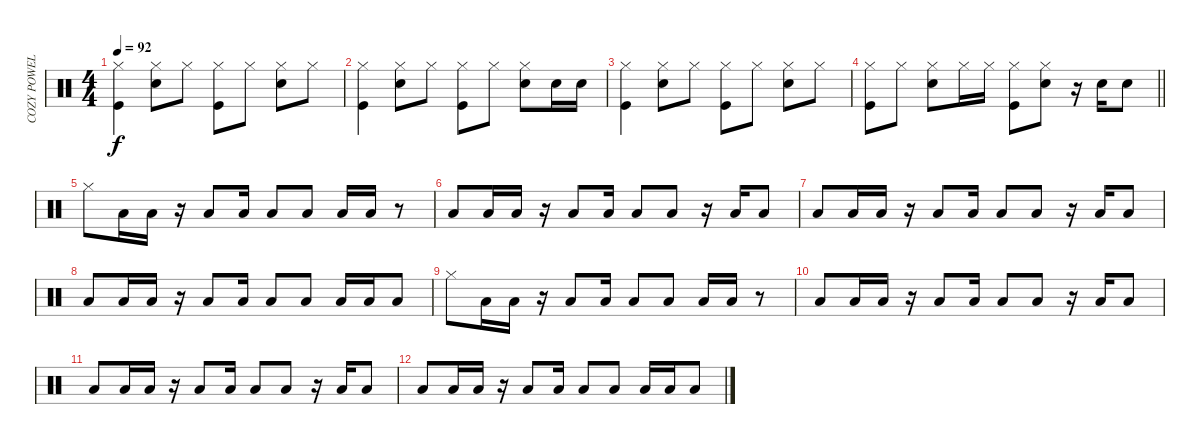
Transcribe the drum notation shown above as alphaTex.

\track ("COZY POWELL" "COZY POWEL") {instrument percussion}
\staff {score}
\articulation defaults
\ts (4 4)
\tempo 92
\clef neutral
\ks c
("Hi-Hat (closed)" "Kick (hit)").4{dy f} ("Hi-Hat (closed)" "Snare (hit) 2").8 "Hi-Hat (closed)".8 ("Hi-Hat (closed)" "Kick (hit)").8 "Hi-Hat (closed)".8 ("Hi-Hat (closed)" "Snare (hit) 2").8 "Hi-Hat (closed)".8 |
("Hi-Hat (closed)" "Kick (hit)").4 ("Hi-Hat (closed)" "Snare (hit) 2").8 "Hi-Hat (closed)".8 ("Hi-Hat (closed)" "Kick (hit)").8 "Hi-Hat (closed)".8 ("Hi-Hat (closed)" "Snare (hit) 2").8 "Snare (hit) 2".16 "Snare (hit) 2".16 |
("Hi-Hat (closed)" "Kick (hit)").4 ("Hi-Hat (closed)" "Snare (hit) 2").8 "Hi-Hat (closed)".8 ("Hi-Hat (closed)" "Kick (hit)").8 "Hi-Hat (closed)".8 ("Hi-Hat (closed)" "Snare (hit) 2").8 "Hi-Hat (closed)".8 |
\barLineRight lightlight
("Hi-Hat (closed)" "Kick (hit)").8 "Hi-Hat (closed)".8 ("Hi-Hat (closed)" "Snare (hit) 2").8 "Hi-Hat (closed)".16 "Hi-Hat (closed)".16 ("Hi-Hat (closed)" "Kick (hit)").8 ("Hi-Hat (closed)" "Snare (hit) 2").8 r.16 "Snare (hit) 2".16 "Snare (hit) 2".8 |
"Hi-Hat (closed)".8 "Low Tom (hit)".16 "Low Tom (hit)".16 r.16 "Low Tom (hit)".8 "Low Tom (hit)".16 "Low Tom (hit)".8 "Low Tom (hit)".8 "Low Tom (hit)".16 "Low Tom (hit)".16 r.8 |
"Low Tom (hit)".8 "Low Tom (hit)".16 "Low Tom (hit)".16 r.16 "Low Tom (hit)".8 "Low Tom (hit)".16 "Low Tom (hit)".8 "Low Tom (hit)".8 r.16 "Low Tom (hit)".16 "Low Tom (hit)".8 |
"Low Tom (hit)".8 "Low Tom (hit)".16 "Low Tom (hit)".16 r.16 "Low Tom (hit)".8 "Low Tom (hit)".16 "Low Tom (hit)".8 "Low Tom (hit)".8 r.16 "Low Tom (hit)".16 "Low Tom (hit)".8 |
"Low Tom (hit)".8 "Low Tom (hit)".16 "Low Tom (hit)".16 r.16 "Low Tom (hit)".8 "Low Tom (hit)".16 "Low Tom (hit)".8 "Low Tom (hit)".8 "Low Tom (hit)".16 "Low Tom (hit)".16 "Low Tom (hit)".8 |
"Hi-Hat (closed)".8 "Low Tom (hit)".16 "Low Tom (hit)".16 r.16 "Low Tom (hit)".8 "Low Tom (hit)".16 "Low Tom (hit)".8 "Low Tom (hit)".8 "Low Tom (hit)".16 "Low Tom (hit)".16 r.8 |
"Low Tom (hit)".8 "Low Tom (hit)".16 "Low Tom (hit)".16 r.16 "Low Tom (hit)".8 "Low Tom (hit)".16 "Low Tom (hit)".8 "Low Tom (hit)".8 r.16 "Low Tom (hit)".16 "Low Tom (hit)".8 |
"Low Tom (hit)".8 "Low Tom (hit)".16 "Low Tom (hit)".16 r.16 "Low Tom (hit)".8 "Low Tom (hit)".16 "Low Tom (hit)".8 "Low Tom (hit)".8 r.16 "Low Tom (hit)".16 "Low Tom (hit)".8 |
"Low Tom (hit)".8 "Low Tom (hit)".16 "Low Tom (hit)".16 r.16 "Low Tom (hit)".8 "Low Tom (hit)".16 "Low Tom (hit)".8 "Low Tom (hit)".8 "Low Tom (hit)".16 "Low Tom (hit)".16 "Low Tom (hit)".8
